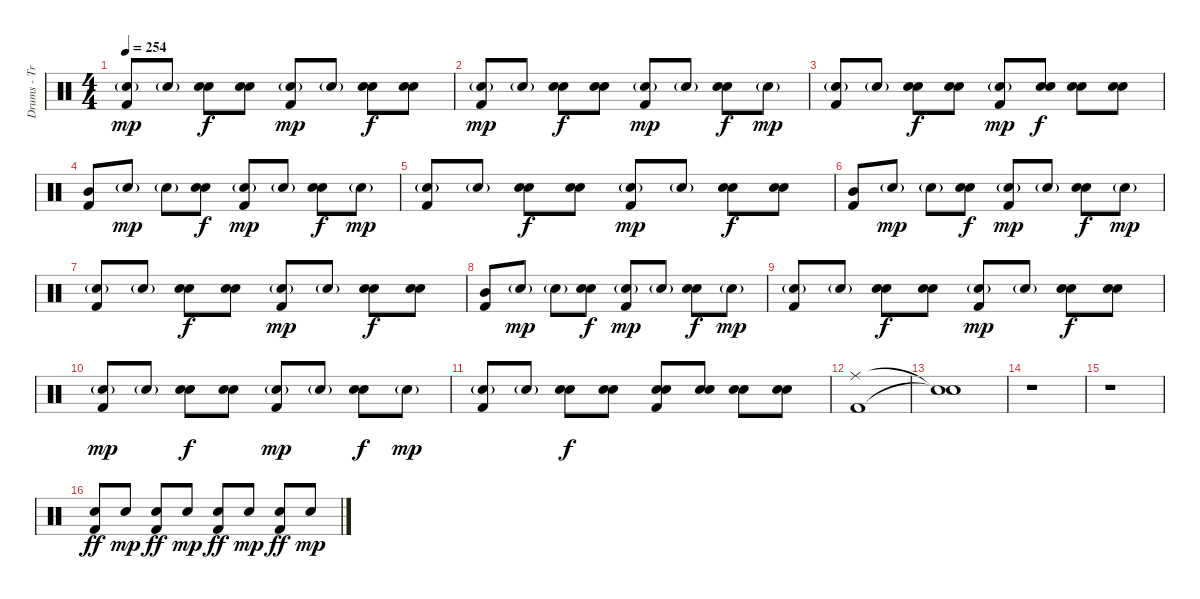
\track ("Drums - Travis Barker" "Drums - Tr") {instrument percussion}
\staff {score}
\articulation defaults
\ts (4 4)
\tempo 254
\clef neutral
\ks c
("Electric Snare (hit)"{g} "Kick (hit) 2").8{dy mp} "Electric Snare (hit)"{g}.8 ("Electric Snare (hit)" "Electric Snare (hit)").8{dy f} ("Electric Snare (hit)" "Electric Snare (hit)").8 ("Electric Snare (hit)"{g} "Kick (hit) 2").8{dy mp} "Electric Snare (hit)"{g}.8 ("Electric Snare (hit)" "Electric Snare (hit)").8{dy f} ("Electric Snare (hit)" "Electric Snare (hit)").8 |
("Electric Snare (hit)"{g} "Kick (hit) 2").8{dy mp} "Electric Snare (hit)"{g}.8 ("Electric Snare (hit)" "Electric Snare (hit)").8{dy f} ("Electric Snare (hit)" "Electric Snare (hit)").8 ("Electric Snare (hit)"{g} "Kick (hit) 2").8{dy mp} "Electric Snare (hit)"{g}.8 ("Electric Snare (hit)" "Electric Snare (hit)").8{dy f} "Electric Snare (hit)"{g}.8{dy mp} |
("Electric Snare (hit)"{g} "Kick (hit) 2").8 "Electric Snare (hit)"{g}.8 ("Electric Snare (hit)" "Electric Snare (hit)").8{dy f} ("Electric Snare (hit)" "Electric Snare (hit)").8 ("Electric Snare (hit)"{g} "Kick (hit) 2").8{dy mp} ("Electric Snare (hit)" "Electric Snare (hit)").8{dy f} ("Electric Snare (hit)" "Electric Snare (hit)").8 ("Electric Snare (hit)" "Electric Snare (hit)").8 |
("Mid Tom (hit)" "Kick (hit) 2").8 "Electric Snare (hit)"{g}.8{dy mp} "Electric Snare (hit)"{g}.8 ("Electric Snare (hit)" "Electric Snare (hit)").8{dy f} ("Electric Snare (hit)"{g} "Kick (hit) 2").8{dy mp} "Electric Snare (hit)"{g}.8 ("Electric Snare (hit)" "Electric Snare (hit)").8{dy f} "Electric Snare (hit)"{g}.8{dy mp} |
("Electric Snare (hit)"{g} "Kick (hit) 2").8 "Electric Snare (hit)"{g}.8 ("Electric Snare (hit)" "Electric Snare (hit)").8{dy f} ("Electric Snare (hit)" "Electric Snare (hit)").8 ("Electric Snare (hit)"{g} "Kick (hit) 2").8{dy mp} "Electric Snare (hit)"{g}.8 ("Electric Snare (hit)" "Electric Snare (hit)").8{dy f} ("Electric Snare (hit)" "Electric Snare (hit)").8 |
("Mid Tom (hit)" "Kick (hit) 2").8 "Electric Snare (hit)"{g}.8{dy mp} "Electric Snare (hit)"{g}.8 ("Electric Snare (hit)" "Electric Snare (hit)").8{dy f} ("Electric Snare (hit)"{g} "Kick (hit) 2").8{dy mp} "Electric Snare (hit)"{g}.8 ("Electric Snare (hit)" "Electric Snare (hit)").8{dy f} "Electric Snare (hit)"{g}.8{dy mp} |
("Electric Snare (hit)"{g} "Kick (hit) 2").8 "Electric Snare (hit)"{g}.8 ("Electric Snare (hit)" "Electric Snare (hit)").8{dy f} ("Electric Snare (hit)" "Electric Snare (hit)").8 ("Electric Snare (hit)"{g} "Kick (hit) 2").8{dy mp} "Electric Snare (hit)"{g}.8 ("Electric Snare (hit)" "Electric Snare (hit)").8{dy f} ("Electric Snare (hit)" "Electric Snare (hit)").8 |
("Mid Tom (hit)" "Kick (hit) 2").8 "Electric Snare (hit)"{g}.8{dy mp} "Electric Snare (hit)"{g}.8 ("Electric Snare (hit)" "Electric Snare (hit)").8{dy f} ("Electric Snare (hit)"{g} "Kick (hit) 2").8{dy mp} "Electric Snare (hit)"{g}.8 ("Electric Snare (hit)" "Electric Snare (hit)").8{dy f} "Electric Snare (hit)"{g}.8{dy mp} |
("Electric Snare (hit)"{g} "Kick (hit) 2").8 "Electric Snare (hit)"{g}.8 ("Electric Snare (hit)" "Electric Snare (hit)").8{dy f} ("Electric Snare (hit)" "Electric Snare (hit)").8 ("Electric Snare (hit)"{g} "Kick (hit) 2").8{dy mp} "Electric Snare (hit)"{g}.8 ("Electric Snare (hit)" "Electric Snare (hit)").8{dy f} ("Electric Snare (hit)" "Electric Snare (hit)").8 |
("Electric Snare (hit)"{g} "Kick (hit) 2").8{dy mp} "Electric Snare (hit)"{g}.8 ("Electric Snare (hit)" "Electric Snare (hit)").8{dy f} ("Electric Snare (hit)" "Electric Snare (hit)").8 ("Electric Snare (hit)"{g} "Kick (hit) 2").8{dy mp} "Electric Snare (hit)"{g}.8 ("Electric Snare (hit)" "Electric Snare (hit)").8{dy f} "Electric Snare (hit)"{g}.8{dy mp} |
("Electric Snare (hit)"{g} "Kick (hit) 2").8 "Electric Snare (hit)"{g}.8 ("Electric Snare (hit)" "Electric Snare (hit)").8{dy f} ("Electric Snare (hit)" "Electric Snare (hit)").8 ("Electric Snare (hit)" "Electric Snare (hit)" "Kick (hit) 2").8 ("Electric Snare (hit)" "Electric Snare (hit)").8 ("Electric Snare (hit)" "Electric Snare (hit)").8 ("Electric Snare (hit)" "Electric Snare (hit)").8 |
("Ride (middle)" "Kick (hit) 2").1 |
("Snare (hit)"{t} "Snare (hit)"{t}).1 |
r.1 |
r.1 |
("Electric Snare (hit)" "Kick (hit) 2").8{dy ff} "Electric Snare (hit)".8{dy mp} ("Electric Snare (hit)" "Kick (hit) 2").8{dy ff} "Electric Snare (hit)".8{dy mp} ("Electric Snare (hit)" "Kick (hit) 2").8{dy ff} "Electric Snare (hit)".8{dy mp} ("Electric Snare (hit)" "Kick (hit) 2").8{dy ff} "Electric Snare (hit)".8{dy mp}
